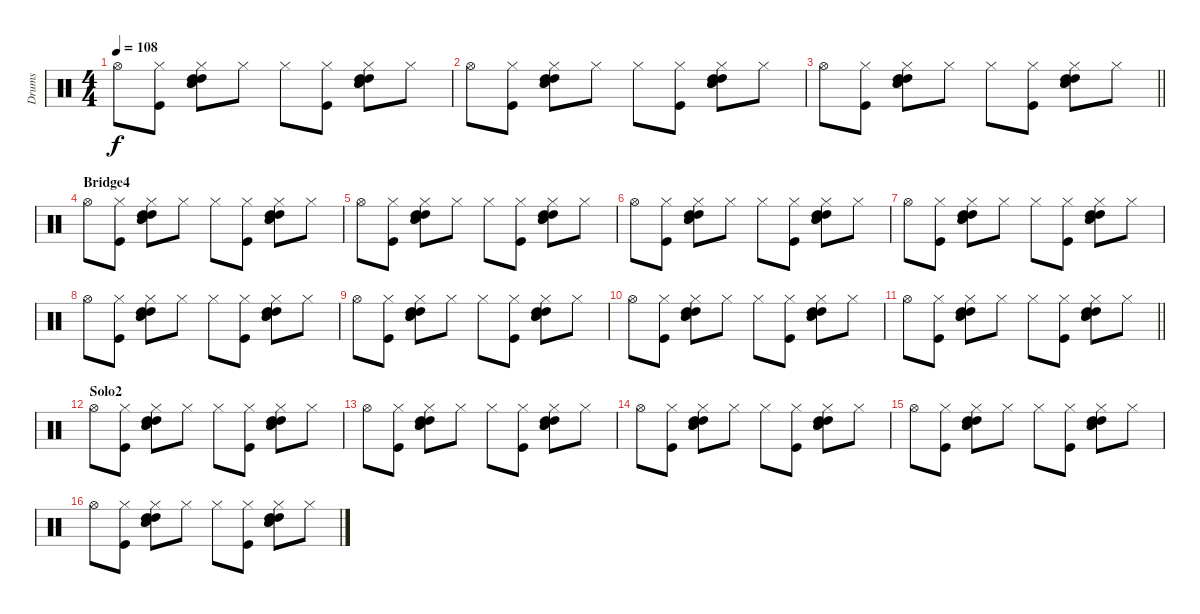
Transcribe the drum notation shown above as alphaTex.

\track ("Drums" "Drums") {instrument percussion}
\staff {score}
\articulation defaults
\ts (4 4)
\tempo 108
\clef neutral
\ks c "Hi-Hat (open)".8{dy f}
("Kick (hit)" "Hi-Hat (closed)").8 ("Snare (hit) 2" "Snare (hit) 2" "High Tom (hit)" "High Tom (hit)" "Hi-Hat (closed)").8 "Hi-Hat (closed)".8 "Hi-Hat (closed)".8 ("Kick (hit)" "Hi-Hat (closed)").8 ("Snare (hit) 2" "Snare (hit) 2" "High Tom (hit)" "High Tom (hit)" "Hi-Hat (closed)").8 "Hi-Hat (closed)".8 |
"Hi-Hat (open)".8 ("Kick (hit)" "Hi-Hat (closed)").8 ("Snare (hit) 2" "Snare (hit) 2" "High Tom (hit)" "High Tom (hit)" "Hi-Hat (closed)").8 "Hi-Hat (closed)".8 "Hi-Hat (closed)".8 ("Kick (hit)" "Hi-Hat (closed)").8 ("Snare (hit) 2" "Snare (hit) 2" "High Tom (hit)" "High Tom (hit)" "Hi-Hat (closed)").8 "Hi-Hat (closed)".8 |
\barLineRight lightlight "Hi-Hat (open)".8
("Kick (hit)" "Hi-Hat (closed)").8 ("Snare (hit) 2" "Snare (hit) 2" "High Tom (hit)" "High Tom (hit)" "Hi-Hat (closed)").8 "Hi-Hat (closed)".8 "Hi-Hat (closed)".8 ("Kick (hit)" "Hi-Hat (closed)").8 ("Snare (hit) 2" "Snare (hit) 2" "High Tom (hit)" "High Tom (hit)" "Hi-Hat (closed)").8 "Hi-Hat (closed)".8 |
\section ("" "Bridge4")
"Hi-Hat (open)".8 ("Kick (hit)" "Hi-Hat (closed)").8 ("Snare (hit) 2" "Snare (hit) 2" "High Tom (hit)" "High Tom (hit)" "Hi-Hat (closed)").8 "Hi-Hat (closed)".8 "Hi-Hat (closed)".8 ("Kick (hit)" "Hi-Hat (closed)").8 ("Snare (hit) 2" "Snare (hit) 2" "High Tom (hit)" "High Tom (hit)" "Hi-Hat (closed)").8 "Hi-Hat (closed)".8 |
"Hi-Hat (open)".8 ("Kick (hit)" "Hi-Hat (closed)").8 ("Snare (hit) 2" "Snare (hit) 2" "High Tom (hit)" "High Tom (hit)" "Hi-Hat (closed)").8 "Hi-Hat (closed)".8 "Hi-Hat (closed)".8 ("Kick (hit)" "Hi-Hat (closed)").8 ("Snare (hit) 2" "Snare (hit) 2" "High Tom (hit)" "High Tom (hit)" "Hi-Hat (closed)").8 "Hi-Hat (closed)".8 |
"Hi-Hat (open)".8 ("Kick (hit)" "Hi-Hat (closed)").8 ("Snare (hit) 2" "Snare (hit) 2" "High Tom (hit)" "High Tom (hit)" "Hi-Hat (closed)").8 "Hi-Hat (closed)".8 "Hi-Hat (closed)".8 ("Kick (hit)" "Hi-Hat (closed)").8 ("Snare (hit) 2" "Snare (hit) 2" "High Tom (hit)" "High Tom (hit)" "Hi-Hat (closed)").8 "Hi-Hat (closed)".8 |
"Hi-Hat (open)".8 ("Kick (hit)" "Hi-Hat (closed)").8 ("Snare (hit) 2" "Snare (hit) 2" "High Tom (hit)" "High Tom (hit)" "Hi-Hat (closed)").8 "Hi-Hat (closed)".8 "Hi-Hat (closed)".8 ("Kick (hit)" "Hi-Hat (closed)").8 ("Snare (hit) 2" "Snare (hit) 2" "High Tom (hit)" "High Tom (hit)" "Hi-Hat (closed)").8 "Hi-Hat (closed)".8 |
"Hi-Hat (open)".8 ("Kick (hit)" "Hi-Hat (closed)").8 ("Snare (hit) 2" "Snare (hit) 2" "High Tom (hit)" "High Tom (hit)" "Hi-Hat (closed)").8 "Hi-Hat (closed)".8 "Hi-Hat (closed)".8 ("Kick (hit)" "Hi-Hat (closed)").8 ("Snare (hit) 2" "Snare (hit) 2" "High Tom (hit)" "High Tom (hit)" "Hi-Hat (closed)").8 "Hi-Hat (closed)".8 |
"Hi-Hat (open)".8 ("Kick (hit)" "Hi-Hat (closed)").8 ("Snare (hit) 2" "Snare (hit) 2" "High Tom (hit)" "High Tom (hit)" "Hi-Hat (closed)").8 "Hi-Hat (closed)".8 "Hi-Hat (closed)".8 ("Kick (hit)" "Hi-Hat (closed)").8 ("Snare (hit) 2" "Snare (hit) 2" "High Tom (hit)" "High Tom (hit)" "Hi-Hat (closed)").8 "Hi-Hat (closed)".8 |
"Hi-Hat (open)".8 ("Kick (hit)" "Hi-Hat (closed)").8 ("Snare (hit) 2" "Snare (hit) 2" "High Tom (hit)" "High Tom (hit)" "Hi-Hat (closed)").8 "Hi-Hat (closed)".8 "Hi-Hat (closed)".8 ("Kick (hit)" "Hi-Hat (closed)").8 ("Snare (hit) 2" "Snare (hit) 2" "High Tom (hit)" "High Tom (hit)" "Hi-Hat (closed)").8 "Hi-Hat (closed)".8 |
\barLineRight lightlight "Hi-Hat (open)".8
("Kick (hit)" "Hi-Hat (closed)").8 ("Snare (hit) 2" "Snare (hit) 2" "High Tom (hit)" "High Tom (hit)" "Hi-Hat (closed)").8 "Hi-Hat (closed)".8 "Hi-Hat (closed)".8 ("Kick (hit)" "Hi-Hat (closed)").8 ("Snare (hit) 2" "Snare (hit) 2" "High Tom (hit)" "High Tom (hit)" "Hi-Hat (closed)").8 "Hi-Hat (closed)".8 |
\section ("" "Solo2")
"Hi-Hat (open)".8 ("Kick (hit)" "Hi-Hat (closed)").8 ("Snare (hit) 2" "Snare (hit) 2" "High Tom (hit)" "High Tom (hit)" "Hi-Hat (closed)").8 "Hi-Hat (closed)".8 "Hi-Hat (closed)".8 ("Kick (hit)" "Hi-Hat (closed)").8 ("Snare (hit) 2" "Snare (hit) 2" "High Tom (hit)" "High Tom (hit)" "Hi-Hat (closed)").8 "Hi-Hat (closed)".8 |
"Hi-Hat (open)".8 ("Kick (hit)" "Hi-Hat (closed)").8 ("Snare (hit) 2" "Snare (hit) 2" "High Tom (hit)" "High Tom (hit)" "Hi-Hat (closed)").8 "Hi-Hat (closed)".8 "Hi-Hat (closed)".8 ("Kick (hit)" "Hi-Hat (closed)").8 ("Snare (hit) 2" "Snare (hit) 2" "High Tom (hit)" "High Tom (hit)" "Hi-Hat (closed)").8 "Hi-Hat (closed)".8 |
"Hi-Hat (open)".8 ("Kick (hit)" "Hi-Hat (closed)").8 ("Snare (hit) 2" "Snare (hit) 2" "High Tom (hit)" "High Tom (hit)" "Hi-Hat (closed)").8 "Hi-Hat (closed)".8 "Hi-Hat (closed)".8 ("Kick (hit)" "Hi-Hat (closed)").8 ("Snare (hit) 2" "Snare (hit) 2" "High Tom (hit)" "High Tom (hit)" "Hi-Hat (closed)").8 "Hi-Hat (closed)".8 |
"Hi-Hat (open)".8 ("Kick (hit)" "Hi-Hat (closed)").8 ("Snare (hit) 2" "Snare (hit) 2" "High Tom (hit)" "High Tom (hit)" "Hi-Hat (closed)").8 "Hi-Hat (closed)".8 "Hi-Hat (closed)".8 ("Kick (hit)" "Hi-Hat (closed)").8 ("Snare (hit) 2" "Snare (hit) 2" "High Tom (hit)" "High Tom (hit)" "Hi-Hat (closed)").8 "Hi-Hat (closed)".8 |
"Hi-Hat (open)".8 ("Kick (hit)" "Hi-Hat (closed)").8 ("Snare (hit) 2" "Snare (hit) 2" "High Tom (hit)" "High Tom (hit)" "Hi-Hat (closed)").8 "Hi-Hat (closed)".8 "Hi-Hat (closed)".8 ("Kick (hit)" "Hi-Hat (closed)").8 ("Snare (hit) 2" "Snare (hit) 2" "High Tom (hit)" "High Tom (hit)" "Hi-Hat (closed)").8 "Hi-Hat (closed)".8
